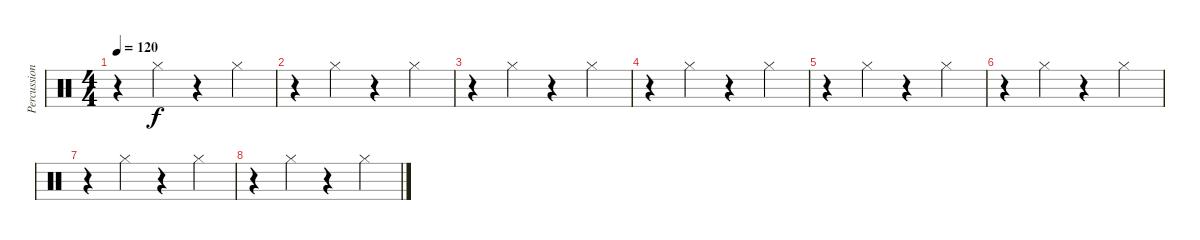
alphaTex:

\track ("Percussion" "Percussion") {instrument percussion}
\staff {score}
\articulation defaults
\ts (4 4)
\tempo 120
\clef neutral
\ks c
r.4{dy f} "Hi-Hat (closed)".4 r.4 "Hi-Hat (closed)".4 |
r.4 "Hi-Hat (closed)".4 r.4 "Hi-Hat (closed)".4 |
r.4 "Hi-Hat (closed)".4 r.4 "Hi-Hat (closed)".4 |
r.4 "Hi-Hat (closed)".4 r.4 "Hi-Hat (closed)".4 |
r.4 "Hi-Hat (closed)".4 r.4 "Hi-Hat (closed)".4 |
r.4 "Hi-Hat (closed)".4 r.4 "Hi-Hat (closed)".4 |
r.4 "Hi-Hat (closed)".4 r.4 "Hi-Hat (closed)".4 |
r.4 "Hi-Hat (closed)".4 r.4 "Hi-Hat (closed)".4
